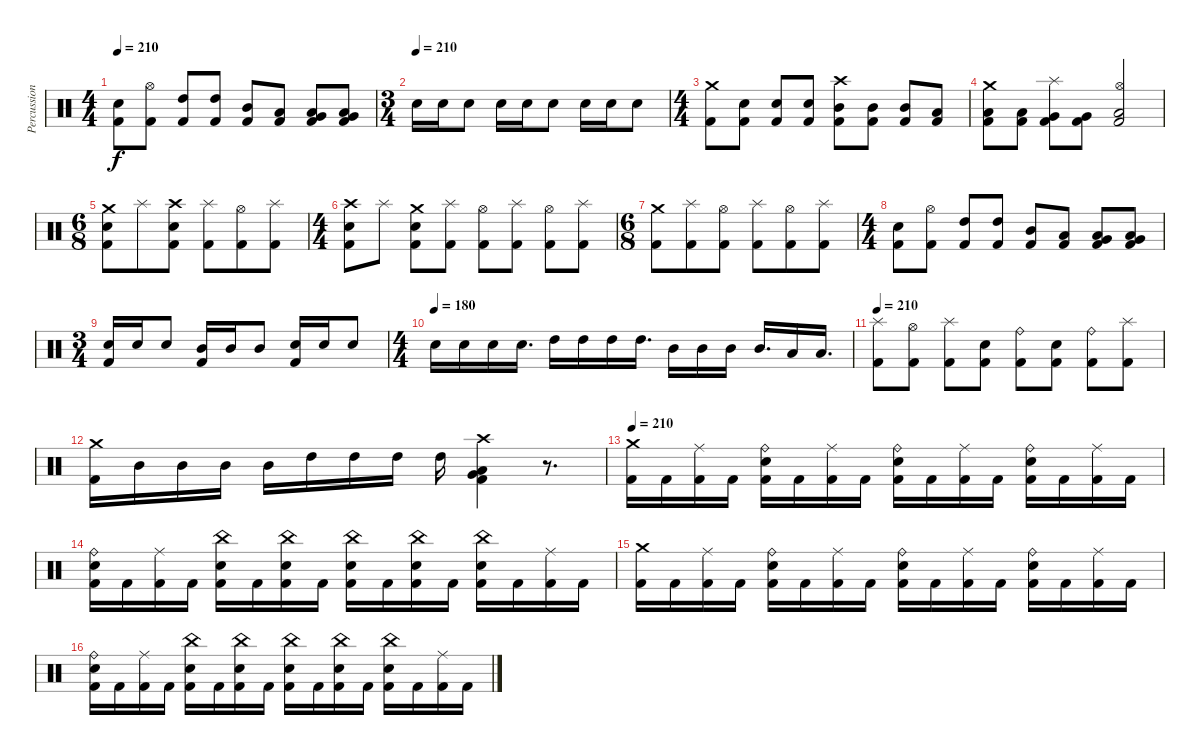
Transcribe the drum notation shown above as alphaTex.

\track ("Percussions" "Percussion") {instrument percussion}
\staff {score}
\articulation defaults
\ts (4 4)
\tempo 210
\clef neutral
\ks c
("Electric Snare (hit)" "Kick (hit) 2").8{dy f} ("Hi-Hat (open)" "Kick (hit) 2").8 ("High Tom (hit)" "Kick (hit) 2").8 ("High Tom (hit)" "Kick (hit) 2").8 ("Mid Tom (hit)" "Kick (hit) 2").8 ("Low Tom (hit)" "Kick (hit) 2").8 ("Very Low Tom (hit)" "Low Floor Tom (hit)" "Kick (hit) 2").8 ("Very Low Tom (hit)" "Low Floor Tom (hit)" "Kick (hit) 2").8 |
\ts (3 4)
\tempo (210)
"Electric Snare (hit)".16 "Electric Snare (hit)".16 "Electric Snare (hit)".8 "Electric Snare (hit)".16 "Electric Snare (hit)".16 "Electric Snare (hit)".8 "Electric Snare (hit)".16 "Electric Snare (hit)".16 "Electric Snare (hit)".8 |
\ts (4 4)
("Crash medium (hit)" "Kick (hit) 2").8 ("Electric Snare (hit)" "Kick (hit) 2").8 ("Electric Snare (hit)" "Kick (hit) 2").8 ("Electric Snare (hit)" "Kick (hit) 2").8 ("Crash high (hit)" "Mid Tom (hit)" "Kick (hit) 2").8 ("Mid Tom (hit)" "Kick (hit) 2").8 ("Mid Tom (hit)" "Kick (hit) 2").8 ("Low Tom (hit)" "Kick (hit) 2").8 |
("Crash medium (hit)" "Low Tom (hit)" "Kick (hit) 2").8 ("Low Tom (hit)" "Kick (hit) 2").8 ("Splash (hit)" "Very Low Tom (hit)" "Kick (hit) 2").8 ("Very Low Tom (hit)" "Kick (hit) 2").8 ("Hi-Hat (open)" "Low Floor Tom (hit)" "Kick (hit) 2").2 |
\ts (6 8)
("Crash medium (hit)" "Electric Snare (hit)" "Kick (hit) 2").8 "Splash (hit)".8 ("Crash high (hit)" "Electric Snare (hit)" "Kick (hit) 2").8 ("Splash (hit)" "Kick (hit) 2").8 ("Hi-Hat (open)" "Kick (hit) 2").8 ("Splash (hit)" "Kick (hit) 2").8 |
\ts (4 4)
("Crash high (hit)" "Electric Snare (hit)" "Kick (hit) 2").8 "Splash (hit)".8 ("Crash medium (hit)" "Electric Snare (hit)" "Kick (hit) 2").8 ("Splash (hit)" "Kick (hit) 2").8 ("Hi-Hat (open)" "Kick (hit) 2").8 ("Splash (hit)" "Kick (hit) 2").8 ("Hi-Hat (open)" "Kick (hit) 2").8 ("Splash (hit)" "Kick (hit) 2").8 |
\ts (6 8)
("Crash medium (hit)" "Kick (hit) 2").8 ("Splash (hit)" "Kick (hit) 2").8 ("Hi-Hat (open)" "Kick (hit) 2").8 ("Splash (hit)" "Kick (hit) 2").8 ("Hi-Hat (open)" "Kick (hit) 2").8 ("Splash (hit)" "Kick (hit) 2").8 |
\ts (4 4)
("Electric Snare (hit)" "Kick (hit) 2").8 ("Hi-Hat (open)" "Kick (hit) 2").8 ("High Tom (hit)" "Kick (hit) 2").8 ("High Tom (hit)" "Kick (hit) 2").8 ("Mid Tom (hit)" "Kick (hit) 2").8 ("Low Tom (hit)" "Kick (hit) 2").8 ("Very Low Tom (hit)" "Low Floor Tom (hit)" "Kick (hit) 2").8 ("Very Low Tom (hit)" "Low Floor Tom (hit)" "Kick (hit) 2").8 |
\ts (3 4)
("Electric Snare (hit)" "Kick (hit) 2").16 "Electric Snare (hit)".16 "Electric Snare (hit)".8 ("Mid Tom (hit)" "Kick (hit) 2").16 "Mid Tom (hit)".16 "Mid Tom (hit)".8 ("Electric Snare (hit)" "Kick (hit) 2").16 "Electric Snare (hit)".16 "Electric Snare (hit)".8 |
\ts (4 4)
\tempo (180)
"Electric Snare (hit)".16 "Electric Snare (hit)".16 "Electric Snare (hit)".16 "Electric Snare (hit)".16{d} "High Tom (hit)".16 "High Tom (hit)".16 "High Tom (hit)".16 "High Tom (hit)".16{d} "Mid Tom (hit)".16 "Mid Tom (hit)".16 "Mid Tom (hit)".16 "Mid Tom (hit)".16{d} "Low Tom (hit)".16 "Low Tom (hit)".16{d} |
\tempo 210
("Splash (hit)" "Kick (hit) 2").8 ("Hi-Hat (open)" "Kick (hit) 2").8 ("Splash (hit)" "Kick (hit) 2").8 ("Electric Snare (hit)" "Kick (hit) 2").8 ("Ride (bell)" "Kick (hit) 2").8 ("Electric Snare (hit)" "Kick (hit) 2").8 ("Ride (bell)" "Kick (hit) 2").8 ("Splash (hit)" "Kick (hit) 2").8 |
("Crash medium (hit)" "Kick (hit) 2").16 "Mid Tom (hit)".16 "Mid Tom (hit)".16 "Mid Tom (hit)".16 "Mid Tom (hit)".16 "High Tom (hit)".16 "High Tom (hit)".16 "High Tom (hit)".16 "High Tom (hit)".16 ("Crash high (hit)" "Very Low Tom (hit)" "Low Floor Tom (hit)" "Kick (hit) 2").4 r.8{d} |
\tempo 210
("Crash medium (hit)" "Kick (hit) 2").16 "Kick (hit) 2".16 ("Ride (middle)" "Kick (hit) 2").16 "Kick (hit) 2".16 ("Ride (bell)" "Electric Snare (hit)" "Kick (hit) 2").16 "Kick (hit) 2".16 ("Ride (middle)" "Kick (hit) 2").16 "Kick (hit) 2".16 ("Ride (bell)" "Electric Snare (hit)" "Kick (hit) 2").16 "Kick (hit) 2".16 ("Ride (middle)" "Kick (hit) 2").16 "Kick (hit) 2".16 ("Ride (bell)" "Electric Snare (hit)" "Kick (hit) 2").16 "Kick (hit) 2".16 ("Ride (middle)" "Kick (hit) 2").16 "Kick (hit) 2".16 |
("Ride (bell)" "Electric Snare (hit)" "Kick (hit) 2").16 "Kick (hit) 2".16 ("Ride (middle)" "Kick (hit) 2").16 "Kick (hit) 2".16 ("China (hit)" "Electric Snare (hit)" "Kick (hit) 2").16 "Kick (hit) 2".16 ("China (hit)" "Electric Snare (hit)" "Kick (hit) 2").16 "Kick (hit) 2".16 ("China (hit)" "Electric Snare (hit)" "Kick (hit) 2").16 "Kick (hit) 2".16 ("China (hit)" "Electric Snare (hit)" "Kick (hit) 2").16 "Kick (hit) 2".16 ("China (hit)" "Electric Snare (hit)" "Kick (hit) 2").16 "Kick (hit) 2".16 ("Ride (middle)" "Kick (hit) 2").16 "Kick (hit) 2".16 |
("Crash medium (hit)" "Kick (hit) 2").16 "Kick (hit) 2".16 ("Ride (middle)" "Kick (hit) 2").16 "Kick (hit) 2".16 ("Ride (bell)" "Electric Snare (hit)" "Kick (hit) 2").16 "Kick (hit) 2".16 ("Ride (middle)" "Kick (hit) 2").16 "Kick (hit) 2".16 ("Ride (bell)" "Electric Snare (hit)" "Kick (hit) 2").16 "Kick (hit) 2".16 ("Ride (middle)" "Kick (hit) 2").16 "Kick (hit) 2".16 ("Ride (bell)" "Electric Snare (hit)" "Kick (hit) 2").16 "Kick (hit) 2".16 ("Ride (middle)" "Kick (hit) 2").16 "Kick (hit) 2".16 |
("Ride (bell)" "Electric Snare (hit)" "Kick (hit) 2").16 "Kick (hit) 2".16 ("Ride (middle)" "Kick (hit) 2").16 "Kick (hit) 2".16 ("China (hit)" "Electric Snare (hit)" "Kick (hit) 2").16 "Kick (hit) 2".16 ("China (hit)" "Electric Snare (hit)" "Kick (hit) 2").16 "Kick (hit) 2".16 ("China (hit)" "Electric Snare (hit)" "Kick (hit) 2").16 "Kick (hit) 2".16 ("China (hit)" "Electric Snare (hit)" "Kick (hit) 2").16 "Kick (hit) 2".16 ("China (hit)" "Electric Snare (hit)" "Kick (hit) 2").16 "Kick (hit) 2".16 ("Ride (middle)" "Kick (hit) 2").16 "Kick (hit) 2".16
